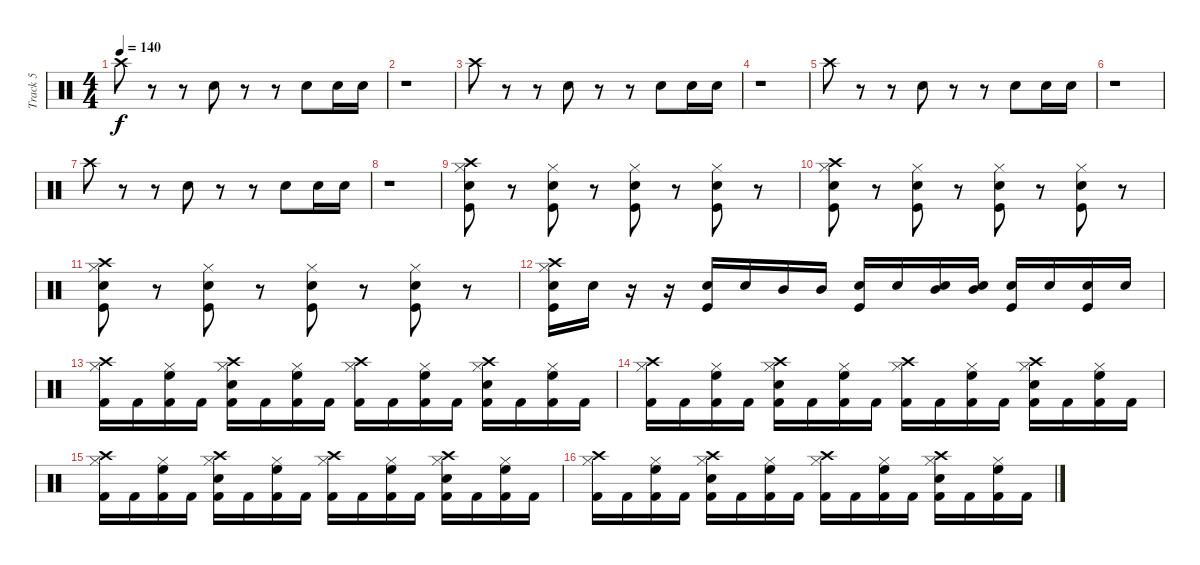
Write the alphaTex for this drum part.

\track ("Track 5" "Track 5") {instrument percussion}
\staff {score}
\articulation defaults
\ts (4 4)
\tempo 140
\clef neutral
\ks c "Crash high (hit)".8{dy f}
r.8 r.8 "Electric Snare (hit)".8 r.8 r.8 "Electric Snare (hit)".8 "Electric Snare (hit)".16 "Electric Snare (hit)".16 |
r.1 |
"Crash high (hit)".8 r.8 r.8 "Electric Snare (hit)".8 r.8 r.8 "Electric Snare (hit)".8 "Electric Snare (hit)".16 "Electric Snare (hit)".16 |
r.1 |
"Crash high (hit)".8 r.8 r.8 "Electric Snare (hit)".8 r.8 r.8 "Electric Snare (hit)".8 "Electric Snare (hit)".16 "Electric Snare (hit)".16 |
r.1 |
"Crash high (hit)".8 r.8 r.8 "Electric Snare (hit)".8 r.8 r.8 "Electric Snare (hit)".8 "Electric Snare (hit)".16 "Electric Snare (hit)".16 |
r.1 |
("Electric Snare (hit)" "Kick (hit)" "Hi-Hat (closed)" "Crash high (hit)").8 r.8 ("Electric Snare (hit)" "Kick (hit)" "Hi-Hat (closed)").8 r.8 ("Electric Snare (hit)" "Kick (hit)" "Hi-Hat (closed)").8 r.8 ("Electric Snare (hit)" "Kick (hit)" "Hi-Hat (closed)").8 r.8 |
("Electric Snare (hit)" "Kick (hit)" "Hi-Hat (closed)" "Crash high (hit)").8 r.8 ("Electric Snare (hit)" "Kick (hit)" "Hi-Hat (closed)").8 r.8 ("Electric Snare (hit)" "Kick (hit)" "Hi-Hat (closed)").8 r.8 ("Electric Snare (hit)" "Kick (hit)" "Hi-Hat (closed)").8 r.8 |
("Electric Snare (hit)" "Kick (hit)" "Hi-Hat (closed)" "Crash high (hit)").8 r.8 ("Electric Snare (hit)" "Kick (hit)" "Hi-Hat (closed)").8 r.8 ("Electric Snare (hit)" "Kick (hit)" "Hi-Hat (closed)").8 r.8 ("Electric Snare (hit)" "Kick (hit)" "Hi-Hat (closed)").8 r.8 |
("Electric Snare (hit)" "Kick (hit)" "Hi-Hat (closed)" "Crash high (hit)").16 "Electric Snare (hit)".16 r.16 r.16 ("Electric Snare (hit)" "Kick (hit)").16 "Electric Snare (hit)".16 "Mid Tom (hit)".16 "Mid Tom (hit)".16 ("Electric Snare (hit)" "Kick (hit)").16 "Electric Snare (hit)".16 ("Electric Snare (hit)" "Mid Tom (hit)").16 ("Electric Snare (hit)" "Mid Tom (hit)").16 ("Electric Snare (hit)" "Kick (hit)").16 "Electric Snare (hit)".16 ("Electric Snare (hit)" "Kick (hit)").16 "Electric Snare (hit)".16 |
("Crash high (hit)" "Kick (hit) 2" "Hi-Hat (closed)").16 "Kick (hit) 2".16 ("Hi-Hat (closed)" "High Floor Tom (hit)" "Kick (hit) 2").16 "Kick (hit) 2".16 ("Electric Snare (hit)" "Kick (hit) 2" "Crash high (hit)" "Hi-Hat (closed)").16 "Kick (hit) 2".16 ("Hi-Hat (closed)" "High Floor Tom (hit)" "Kick (hit) 2").16 "Kick (hit) 2".16 ("Kick (hit) 2" "Crash high (hit)" "Hi-Hat (closed)").16 "Kick (hit) 2".16 ("Hi-Hat (closed)" "High Floor Tom (hit)" "Kick (hit) 2").16 "Kick (hit) 2".16 ("Electric Snare (hit)" "Kick (hit) 2" "Crash high (hit)" "Hi-Hat (closed)").16 "Kick (hit) 2".16 ("Hi-Hat (closed)" "High Floor Tom (hit)" "Kick (hit) 2").16 "Kick (hit) 2".16 |
("Crash high (hit)" "Kick (hit) 2" "Hi-Hat (closed)").16 "Kick (hit) 2".16 ("Hi-Hat (closed)" "High Floor Tom (hit)" "Kick (hit) 2").16 "Kick (hit) 2".16 ("Electric Snare (hit)" "Kick (hit) 2" "Crash high (hit)" "Hi-Hat (closed)").16 "Kick (hit) 2".16 ("Hi-Hat (closed)" "High Floor Tom (hit)" "Kick (hit) 2").16 "Kick (hit) 2".16 ("Kick (hit) 2" "Crash high (hit)" "Hi-Hat (closed)").16 "Kick (hit) 2".16 ("Hi-Hat (closed)" "High Floor Tom (hit)" "Kick (hit) 2").16 "Kick (hit) 2".16 ("Electric Snare (hit)" "Kick (hit) 2" "Crash high (hit)" "Hi-Hat (closed)").16 "Kick (hit) 2".16 ("Hi-Hat (closed)" "High Floor Tom (hit)" "Kick (hit) 2").16 "Kick (hit) 2".16 |
("Crash high (hit)" "Kick (hit) 2" "Hi-Hat (closed)").16 "Kick (hit) 2".16 ("Hi-Hat (closed)" "High Floor Tom (hit)" "Kick (hit) 2").16 "Kick (hit) 2".16 ("Electric Snare (hit)" "Kick (hit) 2" "Crash high (hit)" "Hi-Hat (closed)").16 "Kick (hit) 2".16 ("Hi-Hat (closed)" "High Floor Tom (hit)" "Kick (hit) 2").16 "Kick (hit) 2".16 ("Kick (hit) 2" "Crash high (hit)" "Hi-Hat (closed)").16 "Kick (hit) 2".16 ("Hi-Hat (closed)" "High Floor Tom (hit)" "Kick (hit) 2").16 "Kick (hit) 2".16 ("Electric Snare (hit)" "Kick (hit) 2" "Crash high (hit)" "Hi-Hat (closed)").16 "Kick (hit) 2".16 ("Hi-Hat (closed)" "High Floor Tom (hit)" "Kick (hit) 2").16 "Kick (hit) 2".16 |
("Crash high (hit)" "Kick (hit) 2" "Hi-Hat (closed)").16 "Kick (hit) 2".16 ("Hi-Hat (closed)" "High Floor Tom (hit)" "Kick (hit) 2").16 "Kick (hit) 2".16 ("Electric Snare (hit)" "Kick (hit) 2" "Crash high (hit)" "Hi-Hat (closed)").16 "Kick (hit) 2".16 ("Hi-Hat (closed)" "High Floor Tom (hit)" "Kick (hit) 2").16 "Kick (hit) 2".16 ("Kick (hit) 2" "Crash high (hit)" "Hi-Hat (closed)").16 "Kick (hit) 2".16 ("Hi-Hat (closed)" "High Floor Tom (hit)" "Kick (hit) 2").16 "Kick (hit) 2".16 ("Electric Snare (hit)" "Kick (hit) 2" "Crash high (hit)" "Hi-Hat (closed)").16 "Kick (hit) 2".16 ("Hi-Hat (closed)" "High Floor Tom (hit)" "Kick (hit) 2").16 "Kick (hit) 2".16
